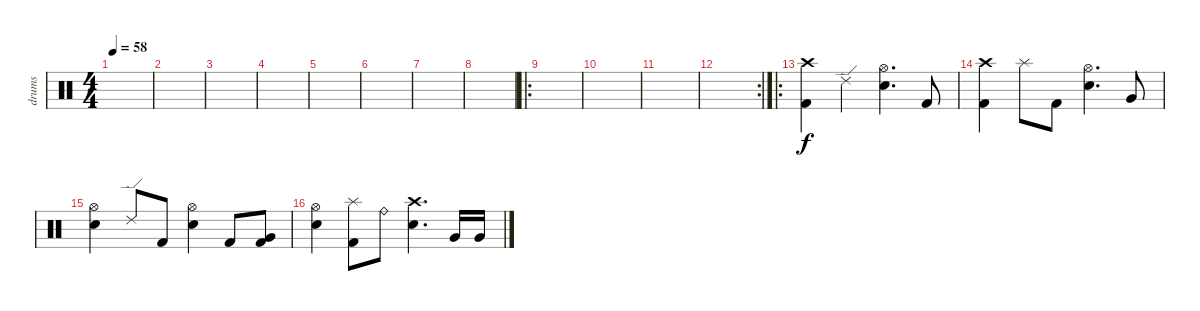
\track ("drums" "drums") {instrument percussion}
\staff {score}
\articulation defaults
\ts (4 4)
\tempo 58
\clef neutral
\ks c
|
|
|
|
|
|
|
|
\ro
|
|
|
\rc 2
|
\ro
("Crash high (hit)" "Kick (hit) 2").4 "Ride (edge) 2".4 ("Hi-Hat (open)" "Snare (hit) 2").4{d} "Kick (hit) 2".8 |
("Crash high (hit)" "Kick (hit) 2").4 "Splash (hit)".8 "Kick (hit) 2".8 ("Hi-Hat (open)" "Snare (hit) 2").4{d} "Very Low Tom (hit)".8 |
("Hi-Hat (open)" "Snare (hit) 2").4 "Ride (edge) 2".8 "Kick (hit) 2".8 ("Hi-Hat (open)" "Snare (hit) 2").4 "Kick (hit) 2".8 ("Kick (hit) 2" "Very Low Tom (hit)").8 |
("Hi-Hat (open)" "Snare (hit) 2").4 ("Splash (hit)" "Kick (hit) 2").8 "Ride (bell)".8 ("Crash high (hit)" "Snare (hit) 2").4{d} "Very Low Tom (hit)".16 "Very Low Tom (hit)".16
